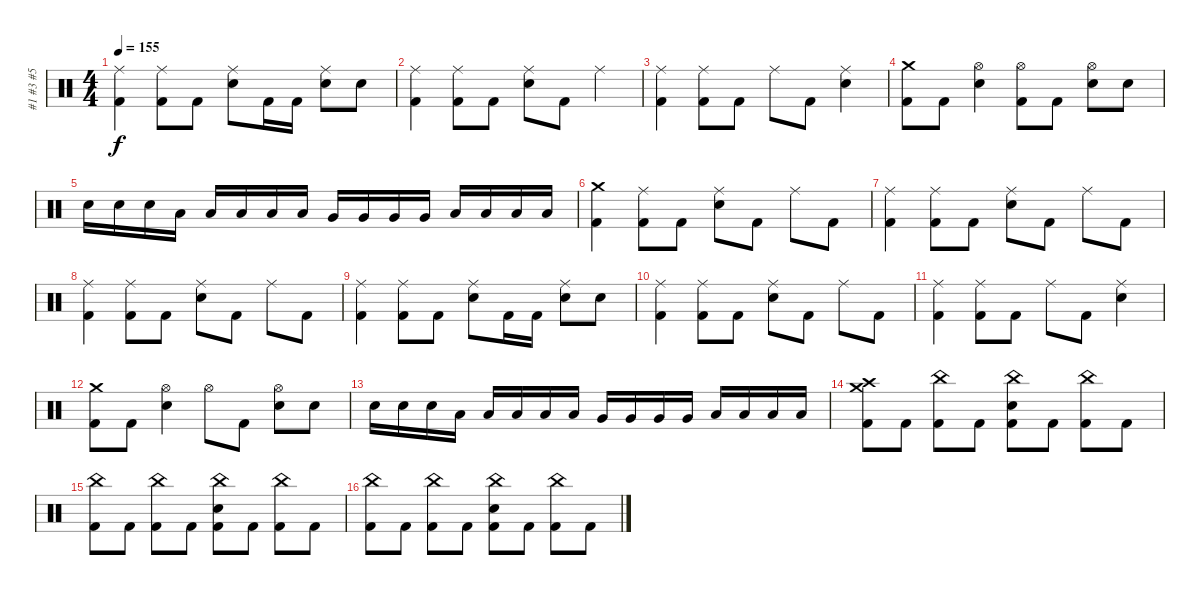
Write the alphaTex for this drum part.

\track ("#1 #3 #5" "#1 #3 #5") {instrument percussion}
\staff {score}
\articulation defaults
\ts (4 4)
\tempo 155
\clef neutral
\ks c
("Ride (middle)" "Kick (hit) 2").4{dy f} ("Ride (middle)" "Kick (hit) 2").8 "Kick (hit) 2".8 ("Ride (middle)" "Electric Snare (hit)").8 "Kick (hit) 2".16 "Kick (hit) 2".16 ("Ride (middle)" "Electric Snare (hit)").8 "Electric Snare (hit)".8 |
("Ride (middle)" "Kick (hit) 2").4 ("Ride (middle)" "Kick (hit) 2").8 "Kick (hit) 2".8 ("Ride (middle)" "Electric Snare (hit)").8 "Kick (hit) 2".8 "Ride (middle)".4 |
("Ride (middle)" "Kick (hit) 2").4 ("Ride (middle)" "Kick (hit) 2").8 "Kick (hit) 2".8 "Ride (middle)".8 "Kick (hit) 2".8 ("Ride (middle)" "Electric Snare (hit)").4 |
("Crash medium (hit)" "Kick (hit) 2").8 "Kick (hit) 2".8 ("Hi-Hat (open)" "Electric Snare (hit)").4 ("Hi-Hat (open)" "Kick (hit) 2").8 "Kick (hit) 2".8 ("Hi-Hat (open)" "Electric Snare (hit)").8 "Electric Snare (hit)".8 |
"Electric Snare (hit)".16 "Electric Snare (hit)".16 "Electric Snare (hit)".16 "Low Tom (hit)".16 "Low Tom (hit)".16 "Low Tom (hit)".16 "Low Tom (hit)".16 "Low Tom (hit)".16 "Very Low Tom (hit)".16 "Very Low Tom (hit)".16 "Very Low Tom (hit)".16 "Very Low Tom (hit)".16 "Low Tom (hit)".16 "Low Tom (hit)".16 "Low Tom (hit)".16 "Low Tom (hit)".16 |
("Crash medium (hit)" "Kick (hit) 2").4 ("Ride (middle)" "Kick (hit) 2").8 "Kick (hit) 2".8 ("Ride (middle)" "Electric Snare (hit)").8 "Kick (hit) 2".8 "Ride (middle)".8 "Kick (hit) 2".8 |
("Ride (middle)" "Kick (hit) 2").4 ("Ride (middle)" "Kick (hit) 2").8 "Kick (hit) 2".8 ("Ride (middle)" "Electric Snare (hit)").8 "Kick (hit) 2".8 "Ride (middle)".8 "Kick (hit) 2".8 |
("Ride (middle)" "Kick (hit) 2").4 ("Ride (middle)" "Kick (hit) 2").8 "Kick (hit) 2".8 ("Ride (middle)" "Electric Snare (hit)").8 "Kick (hit) 2".8 "Ride (middle)".8 "Kick (hit) 2".8 |
("Ride (middle)" "Kick (hit) 2").4 ("Ride (middle)" "Kick (hit) 2").8 "Kick (hit) 2".8 ("Ride (middle)" "Electric Snare (hit)").8 "Kick (hit) 2".16 "Kick (hit) 2".16 ("Ride (middle)" "Electric Snare (hit)").8 "Electric Snare (hit)".8 |
("Ride (middle)" "Kick (hit) 2").4 ("Ride (middle)" "Kick (hit) 2").8 "Kick (hit) 2".8 ("Ride (middle)" "Electric Snare (hit)").8 "Kick (hit) 2".8 "Ride (middle)".8 "Kick (hit) 2".8 |
("Ride (middle)" "Kick (hit) 2").4 ("Ride (middle)" "Kick (hit) 2").8 "Kick (hit) 2".8 "Ride (middle)".8 "Kick (hit) 2".8 ("Ride (middle)" "Electric Snare (hit)").4 |
("Crash medium (hit)" "Kick (hit) 2").8 "Kick (hit) 2".8 ("Hi-Hat (open)" "Electric Snare (hit)").4 "Hi-Hat (open)".8 "Kick (hit) 2".8 ("Hi-Hat (open)" "Electric Snare (hit)").8 "Electric Snare (hit)".8 |
"Electric Snare (hit)".16 "Electric Snare (hit)".16 "Electric Snare (hit)".16 "Low Tom (hit)".16 "Low Tom (hit)".16 "Low Tom (hit)".16 "Low Tom (hit)".16 "Low Tom (hit)".16 "Very Low Tom (hit)".16 "Very Low Tom (hit)".16 "Very Low Tom (hit)".16 "Very Low Tom (hit)".16 "Low Tom (hit)".16 "Low Tom (hit)".16 "Low Tom (hit)".16 "Low Tom (hit)".16 |
("Crash high (hit)" "Crash medium (hit)" "Kick (hit) 2").8 "Kick (hit) 2".8 ("China (hit)" "Kick (hit) 2").8 "Kick (hit) 2".8 ("China (hit)" "Electric Snare (hit)" "Kick (hit) 2").8 "Kick (hit) 2".8 ("China (hit)" "Kick (hit) 2").8 "Kick (hit) 2".8 |
("China (hit)" "Kick (hit) 2").8 "Kick (hit) 2".8 ("China (hit)" "Kick (hit) 2").8 "Kick (hit) 2".8 ("China (hit)" "Electric Snare (hit)" "Kick (hit) 2").8 "Kick (hit) 2".8 ("China (hit)" "Kick (hit) 2").8 "Kick (hit) 2".8 |
("China (hit)" "Kick (hit) 2").8 "Kick (hit) 2".8 ("China (hit)" "Kick (hit) 2").8 "Kick (hit) 2".8 ("China (hit)" "Electric Snare (hit)" "Kick (hit) 2").8 "Kick (hit) 2".8 ("China (hit)" "Kick (hit) 2").8 "Kick (hit) 2".8
